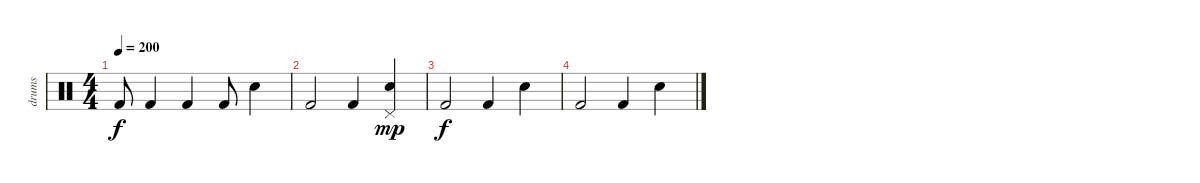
\track ("drums" "drums") {instrument percussion}
\staff {score}
\articulation defaults
\ts (4 4)
\tempo 200
\clef neutral
\ks c "Kick (hit) 2".8{dy f} "Kick (hit) 2".4 "Kick (hit) 2".4 "Kick (hit) 2".8 "Electric Snare (hit)".4
|
"Kick (hit) 2".2 "Kick (hit) 2".4 ("Pedal Hi-Hat (hit)" "Electric Snare (hit)").4{dy mp} |
"Kick (hit) 2".2{dy f} "Kick (hit) 2".4 "Electric Snare (hit)".4 |
"Kick (hit) 2".2 "Kick (hit) 2".4 "Electric Snare (hit)".4
